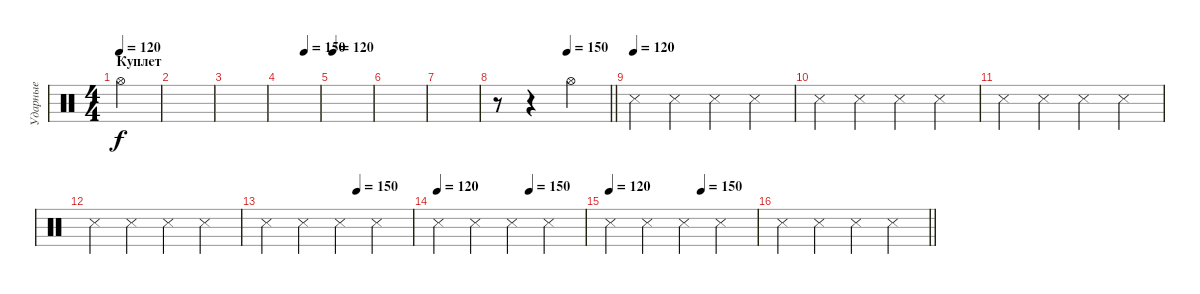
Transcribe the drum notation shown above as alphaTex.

\track ("Ударные" "Ударные") {instrument percussion}
\staff {score}
\articulation defaults
\ts (4 4)
\section ("" "Куплет")
\tempo 120
\clef neutral
\ks c "Hi-Hat (open)".4{dy f}
|
|
|
\tempo (150 0.625)
|
\tempo 120
|
|
|
\tempo (150 0.625)
\barLineRight lightlight
r.8 r.4 "Hi-Hat (open)".4 |
\section ("" "")
\tempo (120)
"Snare (side stick) 3".4 "Snare (side stick) 3".4 "Snare (side stick) 3".4 "Snare (side stick) 3".4 |
"Snare (side stick) 3".4 "Snare (side stick) 3".4 "Snare (side stick) 3".4 "Snare (side stick) 3".4 |
"Snare (side stick) 3".4 "Snare (side stick) 3".4 "Snare (side stick) 3".4 "Snare (side stick) 3".4 |
"Snare (side stick) 3".4 "Snare (side stick) 3".4 "Snare (side stick) 3".4 "Snare (side stick) 3".4 |
\tempo (150 0.625)
"Snare (side stick) 3".4 "Snare (side stick) 3".4 "Snare (side stick) 3".4 "Snare (side stick) 3".4 |
\tempo 120
\tempo (150 0.625)
"Snare (side stick) 3".4 "Snare (side stick) 3".4 "Snare (side stick) 3".4 "Snare (side stick) 3".4 |
\tempo 120
\tempo (150 0.625)
"Snare (side stick) 3".4 "Snare (side stick) 3".4 "Snare (side stick) 3".4 "Snare (side stick) 3".4 |
\barLineRight lightlight "Snare (side stick) 3".4 "Snare (side stick) 3".4 "Snare (side stick) 3".4 "Snare (side stick) 3".4
